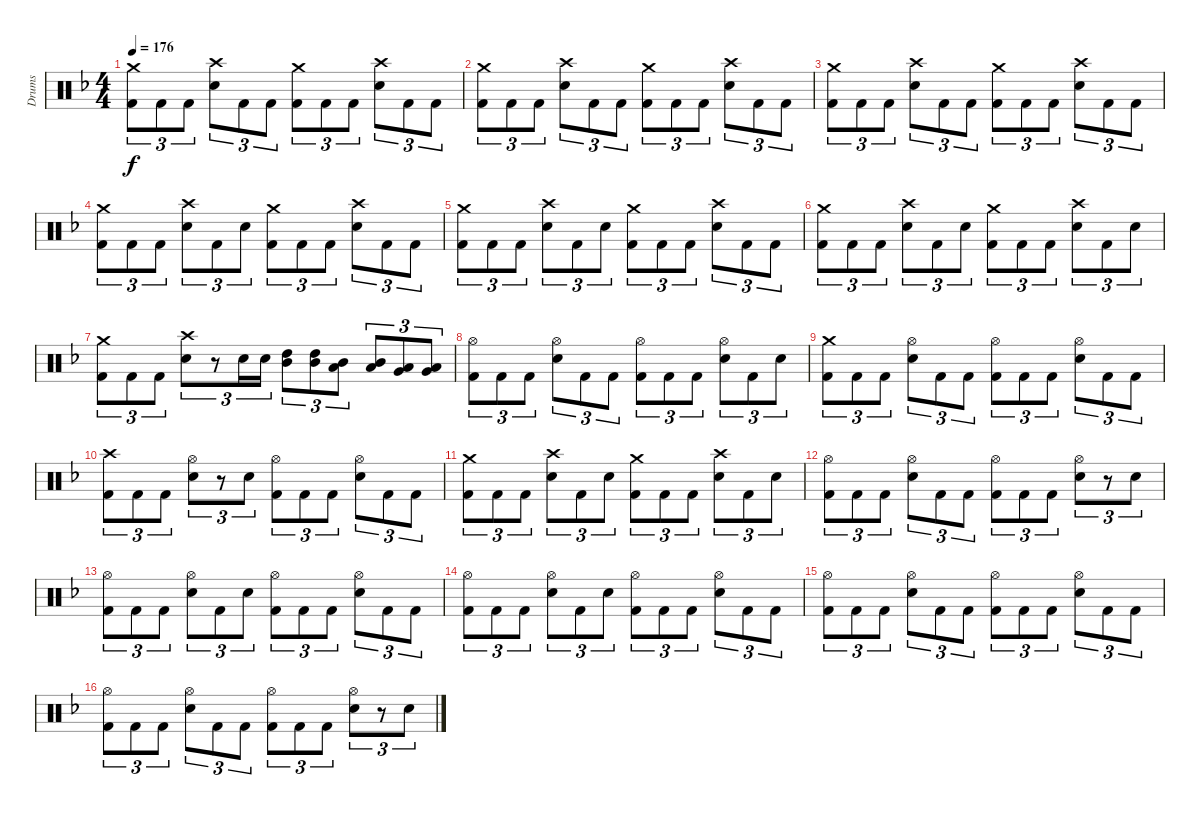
\track ("Drums" "Drums") {instrument percussion}
\staff {score}
\articulation defaults
\ts (4 4)
\tempo 176
\clef neutral
\ks f
("Crash medium (hit)" "Kick (hit) 2").8{tu (3 2) dy f} "Kick (hit) 2".8{tu (3 2)} "Kick (hit) 2".8{tu (3 2)} ("Crash high (hit)" "Snare (hit) 2").8{tu (3 2)} "Kick (hit) 2".8{tu (3 2)} "Kick (hit) 2".8{tu (3 2)} ("Crash medium (hit)" "Kick (hit) 2").8{tu (3 2)} "Kick (hit) 2".8{tu (3 2)} "Kick (hit) 2".8{tu (3 2)} ("Crash high (hit)" "Snare (hit) 2").8{tu (3 2)} "Kick (hit) 2".8{tu (3 2)} "Kick (hit) 2".8{tu (3 2)} |
("Crash medium (hit)" "Kick (hit) 2").8{tu (3 2)} "Kick (hit) 2".8{tu (3 2)} "Kick (hit) 2".8{tu (3 2)} ("Crash high (hit)" "Snare (hit) 2").8{tu (3 2)} "Kick (hit) 2".8{tu (3 2)} "Kick (hit) 2".8{tu (3 2)} ("Crash medium (hit)" "Kick (hit) 2").8{tu (3 2)} "Kick (hit) 2".8{tu (3 2)} "Kick (hit) 2".8{tu (3 2)} ("Crash high (hit)" "Snare (hit) 2").8{tu (3 2)} "Kick (hit) 2".8{tu (3 2)} "Kick (hit) 2".8{tu (3 2)} |
("Crash medium (hit)" "Kick (hit) 2").8{tu (3 2)} "Kick (hit) 2".8{tu (3 2)} "Kick (hit) 2".8{tu (3 2)} ("Crash high (hit)" "Snare (hit) 2").8{tu (3 2)} "Kick (hit) 2".8{tu (3 2)} "Kick (hit) 2".8{tu (3 2)} ("Crash medium (hit)" "Kick (hit) 2").8{tu (3 2)} "Kick (hit) 2".8{tu (3 2)} "Kick (hit) 2".8{tu (3 2)} ("Crash high (hit)" "Snare (hit) 2").8{tu (3 2)} "Kick (hit) 2".8{tu (3 2)} "Kick (hit) 2".8{tu (3 2)} |
("Crash medium (hit)" "Kick (hit) 2").8{tu (3 2)} "Kick (hit) 2".8{tu (3 2)} "Kick (hit) 2".8{tu (3 2)} ("Crash high (hit)" "Snare (hit) 2").8{tu (3 2)} "Kick (hit) 2".8{tu (3 2)} "Snare (hit) 2".8{tu (3 2)} ("Crash medium (hit)" "Kick (hit) 2").8{tu (3 2)} "Kick (hit) 2".8{tu (3 2)} "Kick (hit) 2".8{tu (3 2)} ("Crash high (hit)" "Snare (hit) 2").8{tu (3 2)} "Kick (hit) 2".8{tu (3 2)} "Kick (hit) 2".8{tu (3 2)} |
("Crash medium (hit)" "Kick (hit) 2").8{tu (3 2)} "Kick (hit) 2".8{tu (3 2)} "Kick (hit) 2".8{tu (3 2)} ("Crash high (hit)" "Snare (hit) 2").8{tu (3 2)} "Kick (hit) 2".8{tu (3 2)} "Snare (hit) 2".8{tu (3 2)} ("Crash medium (hit)" "Kick (hit) 2").8{tu (3 2)} "Kick (hit) 2".8{tu (3 2)} "Kick (hit) 2".8{tu (3 2)} ("Crash high (hit)" "Snare (hit) 2").8{tu (3 2)} "Kick (hit) 2".8{tu (3 2)} "Kick (hit) 2".8{tu (3 2)} |
("Crash medium (hit)" "Kick (hit) 2").8{tu (3 2)} "Kick (hit) 2".8{tu (3 2)} "Kick (hit) 2".8{tu (3 2)} ("Crash high (hit)" "Snare (hit) 2").8{tu (3 2)} "Kick (hit) 2".8{tu (3 2)} "Snare (hit) 2".8{tu (3 2)} ("Crash medium (hit)" "Kick (hit) 2").8{tu (3 2)} "Kick (hit) 2".8{tu (3 2)} "Kick (hit) 2".8{tu (3 2)} ("Crash high (hit)" "Snare (hit) 2").8{tu (3 2)} "Kick (hit) 2".8{tu (3 2)} "Snare (hit) 2".8{tu (3 2)} |
("Crash medium (hit)" "Kick (hit) 2").8{tu (3 2)} "Kick (hit) 2".8{tu (3 2)} "Kick (hit) 2".8{tu (3 2)} ("Crash high (hit)" "Snare (hit) 2").8{tu (3 2)} r.8{tu (3 2)} "Snare (hit) 2".16{tu (3 2)} "Snare (hit) 2".16{tu (3 2)} ("High Tom (hit)" "Mid Tom (hit)").8{tu (3 2)} ("High Tom (hit)" "Mid Tom (hit)").8{tu (3 2)} ("Mid Tom (hit)" "Low Tom (hit)").8{tu (3 2)} ("Mid Tom (hit)" "Low Tom (hit)").8{tu (3 2)} ("Low Tom (hit)" "Very Low Tom (hit)").8{tu (3 2)} ("Low Tom (hit)" "Very Low Tom (hit)").8{tu (3 2)} |
("Hi-Hat (open)" "Kick (hit) 2").8{tu (3 2)} "Kick (hit) 2".8{tu (3 2)} "Kick (hit) 2".8{tu (3 2)} ("Hi-Hat (open)" "Snare (hit) 2").8{tu (3 2)} "Kick (hit) 2".8{tu (3 2)} "Kick (hit) 2".8{tu (3 2)} ("Hi-Hat (open)" "Kick (hit) 2").8{tu (3 2)} "Kick (hit) 2".8{tu (3 2)} "Kick (hit) 2".8{tu (3 2)} ("Hi-Hat (open)" "Snare (hit) 2").8{tu (3 2)} "Kick (hit) 2".8{tu (3 2)} "Snare (hit) 2".8{tu (3 2)} |
("Crash medium (hit)" "Kick (hit) 2").8{tu (3 2)} "Kick (hit) 2".8{tu (3 2)} "Kick (hit) 2".8{tu (3 2)} ("Hi-Hat (open)" "Snare (hit) 2").8{tu (3 2)} "Kick (hit) 2".8{tu (3 2)} "Kick (hit) 2".8{tu (3 2)} ("Hi-Hat (open)" "Kick (hit) 2").8{tu (3 2)} "Kick (hit) 2".8{tu (3 2)} "Kick (hit) 2".8{tu (3 2)} ("Hi-Hat (open)" "Snare (hit) 2").8{tu (3 2)} "Kick (hit) 2".8{tu (3 2)} "Kick (hit) 2".8{tu (3 2)} |
("Crash high (hit)" "Kick (hit) 2").8{tu (3 2)} "Kick (hit) 2".8{tu (3 2)} "Kick (hit) 2".8{tu (3 2)} ("Hi-Hat (open)" "Snare (hit) 2").8{tu (3 2)} r.8{tu (3 2)} "Snare (hit) 2".8{tu (3 2)} ("Hi-Hat (open)" "Kick (hit) 2").8{tu (3 2)} "Kick (hit) 2".8{tu (3 2)} "Kick (hit) 2".8{tu (3 2)} ("Hi-Hat (open)" "Snare (hit) 2").8{tu (3 2)} "Kick (hit) 2".8{tu (3 2)} "Kick (hit) 2".8{tu (3 2)} |
("Crash medium (hit)" "Kick (hit) 2").8{tu (3 2)} "Kick (hit) 2".8{tu (3 2)} "Kick (hit) 2".8{tu (3 2)} ("Crash high (hit)" "Snare (hit) 2").8{tu (3 2)} "Kick (hit) 2".8{tu (3 2)} "Snare (hit) 2".8{tu (3 2)} ("Crash medium (hit)" "Kick (hit) 2").8{tu (3 2)} "Kick (hit) 2".8{tu (3 2)} "Kick (hit) 2".8{tu (3 2)} ("Crash high (hit)" "Snare (hit) 2").8{tu (3 2)} "Kick (hit) 2".8{tu (3 2)} "Snare (hit) 2".8{tu (3 2)} |
("Hi-Hat (open)" "Kick (hit) 2").8{tu (3 2)} "Kick (hit) 2".8{tu (3 2)} "Kick (hit) 2".8{tu (3 2)} ("Hi-Hat (open)" "Snare (hit) 2").8{tu (3 2)} "Kick (hit) 2".8{tu (3 2)} "Kick (hit) 2".8{tu (3 2)} ("Hi-Hat (open)" "Kick (hit) 2").8{tu (3 2)} "Kick (hit) 2".8{tu (3 2)} "Kick (hit) 2".8{tu (3 2)} ("Hi-Hat (open)" "Snare (hit) 2").8{tu (3 2)} r.8{tu (3 2)} "Snare (hit) 2".8{tu (3 2)} |
("Hi-Hat (open)" "Kick (hit) 2").8{tu (3 2)} "Kick (hit) 2".8{tu (3 2)} "Kick (hit) 2".8{tu (3 2)} ("Hi-Hat (open)" "Snare (hit) 2").8{tu (3 2)} "Kick (hit) 2".8{tu (3 2)} "Snare (hit) 2".8{tu (3 2)} ("Hi-Hat (open)" "Kick (hit) 2").8{tu (3 2)} "Kick (hit) 2".8{tu (3 2)} "Kick (hit) 2".8{tu (3 2)} ("Hi-Hat (open)" "Snare (hit) 2").8{tu (3 2)} "Kick (hit) 2".8{tu (3 2)} "Kick (hit) 2".8{tu (3 2)} |
("Hi-Hat (open)" "Kick (hit) 2").8{tu (3 2)} "Kick (hit) 2".8{tu (3 2)} "Kick (hit) 2".8{tu (3 2)} ("Hi-Hat (open)" "Snare (hit) 2").8{tu (3 2)} "Kick (hit) 2".8{tu (3 2)} "Snare (hit) 2".8{tu (3 2)} ("Hi-Hat (open)" "Kick (hit) 2").8{tu (3 2)} "Kick (hit) 2".8{tu (3 2)} "Kick (hit) 2".8{tu (3 2)} ("Hi-Hat (open)" "Snare (hit) 2").8{tu (3 2)} "Kick (hit) 2".8{tu (3 2)} "Kick (hit) 2".8{tu (3 2)} |
("Hi-Hat (open)" "Kick (hit) 2").8{tu (3 2)} "Kick (hit) 2".8{tu (3 2)} "Kick (hit) 2".8{tu (3 2)} ("Hi-Hat (open)" "Snare (hit) 2").8{tu (3 2)} "Kick (hit) 2".8{tu (3 2)} "Kick (hit) 2".8{tu (3 2)} ("Hi-Hat (open)" "Kick (hit) 2").8{tu (3 2)} "Kick (hit) 2".8{tu (3 2)} "Kick (hit) 2".8{tu (3 2)} ("Hi-Hat (open)" "Snare (hit) 2").8{tu (3 2)} "Kick (hit) 2".8{tu (3 2)} "Kick (hit) 2".8{tu (3 2)} |
("Hi-Hat (open)" "Kick (hit) 2").8{tu (3 2)} "Kick (hit) 2".8{tu (3 2)} "Kick (hit) 2".8{tu (3 2)} ("Hi-Hat (open)" "Snare (hit) 2").8{tu (3 2)} "Kick (hit) 2".8{tu (3 2)} "Kick (hit) 2".8{tu (3 2)} ("Hi-Hat (open)" "Kick (hit) 2").8{tu (3 2)} "Kick (hit) 2".8{tu (3 2)} "Kick (hit) 2".8{tu (3 2)} ("Hi-Hat (open)" "Snare (hit) 2").8{tu (3 2)} r.8{tu (3 2)} "Snare (hit) 2".8{tu (3 2)}
